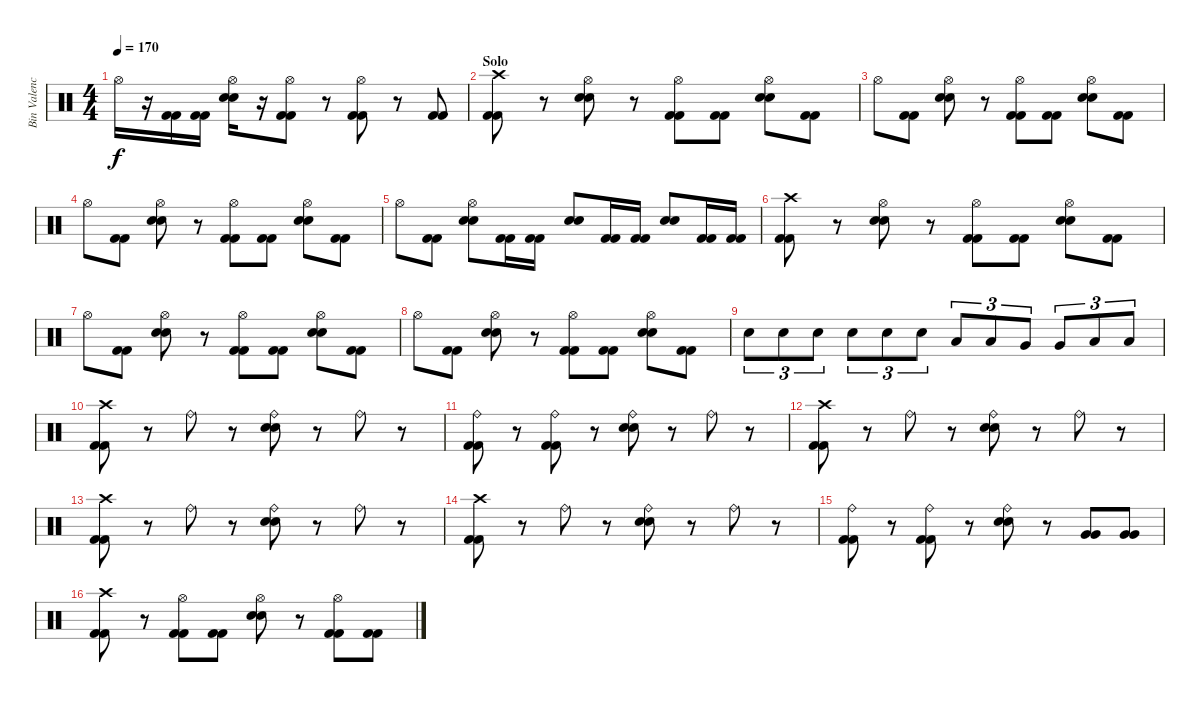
\track ("Bin Valencia (Bateria)" "Bin Valenc") {instrument percussion}
\staff {score}
\articulation defaults
\ts (4 4)
\tempo 170
\clef neutral
\ks c "Hi-Hat (open)".16{dy f}
r.16 ("Kick (hit) 2" "Kick (hit) 2").16 ("Kick (hit) 2" "Kick (hit) 2").16 ("Hi-Hat (open)" "Snare (hit) 2" "Snare (hit) 2").16 r.16 ("Hi-Hat (open)" "Kick (hit) 2" "Kick (hit) 2").8 r.8 ("Hi-Hat (open)" "Kick (hit) 2" "Kick (hit) 2").8 r.8 ("Kick (hit) 2" "Kick (hit) 2").8 |
\section ("" "Solo")
("Crash high (hit)" "Kick (hit) 2" "Kick (hit) 2").8 r.8 ("Hi-Hat (open)" "Snare (hit) 2" "Snare (hit) 2").8 r.8 ("Hi-Hat (open)" "Kick (hit) 2" "Kick (hit) 2").8 ("Kick (hit) 2" "Kick (hit) 2").8 ("Hi-Hat (open)" "Snare (hit) 2" "Snare (hit) 2").8 ("Kick (hit) 2" "Kick (hit) 2").8 |
"Hi-Hat (open)".8 ("Kick (hit) 2" "Kick (hit) 2").8 ("Hi-Hat (open)" "Snare (hit) 2" "Snare (hit) 2").8 r.8 ("Hi-Hat (open)" "Kick (hit) 2" "Kick (hit) 2").8 ("Kick (hit) 2" "Kick (hit) 2").8 ("Hi-Hat (open)" "Snare (hit) 2" "Snare (hit) 2").8 ("Kick (hit) 2" "Kick (hit) 2").8 |
"Hi-Hat (open)".8 ("Kick (hit) 2" "Kick (hit) 2").8 ("Hi-Hat (open)" "Snare (hit) 2" "Snare (hit) 2").8 r.8 ("Hi-Hat (open)" "Kick (hit) 2" "Kick (hit) 2").8 ("Kick (hit) 2" "Kick (hit) 2").8 ("Hi-Hat (open)" "Snare (hit) 2" "Snare (hit) 2").8 ("Kick (hit) 2" "Kick (hit) 2").8 |
"Hi-Hat (open)".8 ("Kick (hit) 2" "Kick (hit) 2").8 ("Hi-Hat (open)" "Snare (hit) 2" "Snare (hit) 2").8 ("Kick (hit) 2" "Kick (hit) 2").16 ("Kick (hit) 2" "Kick (hit) 2").16 ("Snare (hit) 2" "Snare (hit) 2").8 ("Kick (hit) 2" "Kick (hit) 2").16 ("Kick (hit) 2" "Kick (hit) 2").16 ("Snare (hit) 2" "Snare (hit) 2").8 ("Kick (hit) 2" "Kick (hit) 2").16 ("Kick (hit) 2" "Kick (hit) 2").16 |
("Crash high (hit)" "Kick (hit) 2" "Kick (hit) 2").8 r.8 ("Hi-Hat (open)" "Snare (hit) 2" "Snare (hit) 2").8 r.8 ("Hi-Hat (open)" "Kick (hit) 2" "Kick (hit) 2").8 ("Kick (hit) 2" "Kick (hit) 2").8 ("Hi-Hat (open)" "Snare (hit) 2" "Snare (hit) 2").8 ("Kick (hit) 2" "Kick (hit) 2").8 |
"Hi-Hat (open)".8 ("Kick (hit) 2" "Kick (hit) 2").8 ("Hi-Hat (open)" "Snare (hit) 2" "Snare (hit) 2").8 r.8 ("Hi-Hat (open)" "Kick (hit) 2" "Kick (hit) 2").8 ("Kick (hit) 2" "Kick (hit) 2").8 ("Hi-Hat (open)" "Snare (hit) 2" "Snare (hit) 2").8 ("Kick (hit) 2" "Kick (hit) 2").8 |
"Hi-Hat (open)".8 ("Kick (hit) 2" "Kick (hit) 2").8 ("Hi-Hat (open)" "Snare (hit) 2" "Snare (hit) 2").8 r.8 ("Hi-Hat (open)" "Kick (hit) 2" "Kick (hit) 2").8 ("Kick (hit) 2" "Kick (hit) 2").8 ("Hi-Hat (open)" "Snare (hit) 2" "Snare (hit) 2").8 ("Kick (hit) 2" "Kick (hit) 2").8 |
"Snare (hit) 2".8{tu (3 2)} "Snare (hit) 2".8{tu (3 2)} "Snare (hit) 2".8{tu (3 2)} "Snare (hit) 2".8{tu (3 2)} "Snare (hit) 2".8{tu (3 2)} "Snare (hit) 2".8{tu (3 2)} "Low Tom (hit)".8{tu (3 2)} "Low Tom (hit)".8{tu (3 2)} "Very Low Tom (hit)".8{tu (3 2)} "Very Low Tom (hit)".8{tu (3 2)} "Low Floor Tom (hit)".8{tu (3 2)} "Low Floor Tom (hit)".8{tu (3 2)} |
("Crash high (hit)" "Kick (hit) 2" "Kick (hit) 2").8 r.8 "Ride (bell)".8 r.8 ("Ride (bell)" "Snare (hit) 2" "Snare (hit) 2").8 r.8 "Ride (bell)".8 r.8 |
("Ride (bell)" "Kick (hit) 2" "Kick (hit) 2").8 r.8 ("Ride (bell)" "Kick (hit) 2" "Kick (hit) 2").8 r.8 ("Ride (bell)" "Snare (hit) 2" "Snare (hit) 2").8 r.8 "Ride (bell)".8 r.8 |
("Crash high (hit)" "Kick (hit) 2" "Kick (hit) 2").8 r.8 "Ride (bell)".8 r.8 ("Ride (bell)" "Snare (hit) 2" "Snare (hit) 2").8 r.8 "Ride (bell)".8 r.8 |
("Crash high (hit)" "Kick (hit) 2" "Kick (hit) 2").8 r.8 "Ride (bell)".8 r.8 ("Ride (bell)" "Snare (hit) 2" "Snare (hit) 2").8 r.8 "Ride (bell)".8 r.8 |
("Crash high (hit)" "Kick (hit) 2" "Kick (hit) 2").8 r.8 "Ride (bell)".8 r.8 ("Ride (bell)" "Snare (hit) 2" "Snare (hit) 2").8 r.8 "Ride (bell)".8 r.8 |
("Ride (bell)" "Kick (hit) 2" "Kick (hit) 2").8 r.8 ("Ride (bell)" "Kick (hit) 2" "Kick (hit) 2").8 r.8 ("Ride (bell)" "Snare (hit) 2" "Snare (hit) 2").8 r.8 ("Very Low Tom (hit)" "Very Low Tom (hit)").8 ("Very Low Tom (hit)" "Very Low Tom (hit)").8 |
("Crash high (hit)" "Kick (hit) 2" "Kick (hit) 2").8 r.8 ("Hi-Hat (open)" "Kick (hit) 2" "Kick (hit) 2").8 ("Kick (hit) 2" "Kick (hit) 2").8 ("Hi-Hat (open)" "Snare (hit) 2" "Snare (hit) 2").8 r.8 ("Hi-Hat (open)" "Kick (hit) 2" "Kick (hit) 2").8 ("Kick (hit) 2" "Kick (hit) 2").8
